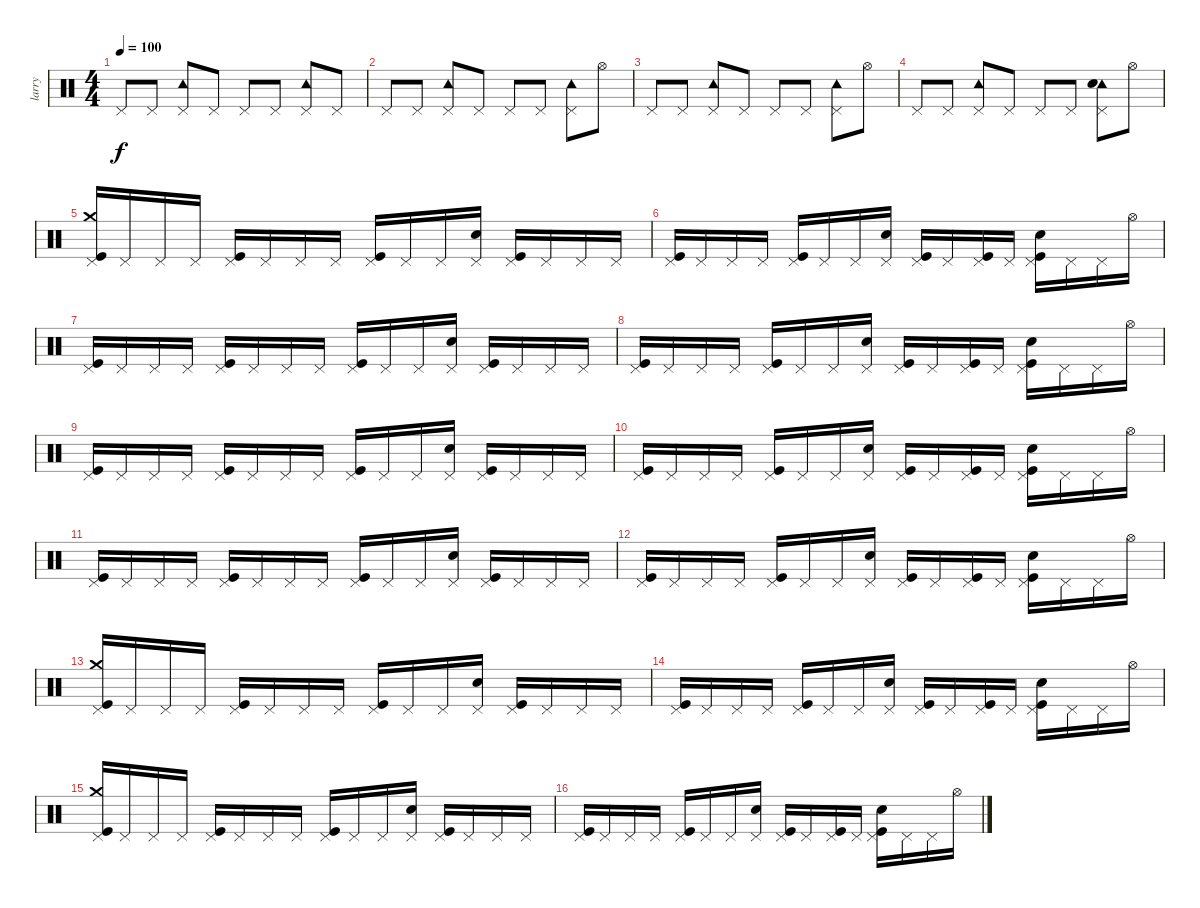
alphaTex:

\track ("larry" "larry") {instrument percussion}
\staff {score}
\articulation defaults
\ts (4 4)
\tempo 100
\clef neutral
\ks c "Pedal Hi-Hat (hit)".8{dy f} "Pedal Hi-Hat (hit)".8
("Pedal Hi-Hat (hit)" "Tambourine (hit)").8 "Pedal Hi-Hat (hit)".8 "Pedal Hi-Hat (hit)".8 "Pedal Hi-Hat (hit)".8 ("Pedal Hi-Hat (hit)" "Tambourine (hit)").8 "Pedal Hi-Hat (hit)".8 |
"Pedal Hi-Hat (hit)".8 "Pedal Hi-Hat (hit)".8 ("Pedal Hi-Hat (hit)" "Tambourine (hit)").8 "Pedal Hi-Hat (hit)".8 "Pedal Hi-Hat (hit)".8 "Pedal Hi-Hat (hit)".8 ("Pedal Hi-Hat (hit)" "Tambourine (hit)").8 "Hi-Hat (open)".8 |
"Pedal Hi-Hat (hit)".8 "Pedal Hi-Hat (hit)".8 ("Pedal Hi-Hat (hit)" "Tambourine (hit)").8 "Pedal Hi-Hat (hit)".8 "Pedal Hi-Hat (hit)".8 "Pedal Hi-Hat (hit)".8 ("Pedal Hi-Hat (hit)" "Tambourine (hit)").8 "Hi-Hat (open)".8 |
"Pedal Hi-Hat (hit)".8 "Pedal Hi-Hat (hit)".8 ("Pedal Hi-Hat (hit)" "Tambourine (hit)").8 "Pedal Hi-Hat (hit)".8 "Pedal Hi-Hat (hit)".8 "Pedal Hi-Hat (hit)".8 ("Pedal Hi-Hat (hit)" "Tambourine (hit)" "Metronome (bell)").8 "Hi-Hat (open)".8 |
("Pedal Hi-Hat (hit)" "Crash medium (hit)" "Kick (hit)").16 "Pedal Hi-Hat (hit)".16 "Pedal Hi-Hat (hit)".16 "Pedal Hi-Hat (hit)".16 ("Pedal Hi-Hat (hit)" "Kick (hit)").16 "Pedal Hi-Hat (hit)".16 "Pedal Hi-Hat (hit)".16 "Pedal Hi-Hat (hit)".16 ("Pedal Hi-Hat (hit)" "Kick (hit)").16 "Pedal Hi-Hat (hit)".16 "Pedal Hi-Hat (hit)".16 ("Pedal Hi-Hat (hit)" "Metronome (bell)").16 ("Pedal Hi-Hat (hit)" "Kick (hit)").16 "Pedal Hi-Hat (hit)".16 "Pedal Hi-Hat (hit)".16 "Pedal Hi-Hat (hit)".16 |
("Pedal Hi-Hat (hit)" "Kick (hit)").16 "Pedal Hi-Hat (hit)".16 "Pedal Hi-Hat (hit)".16 "Pedal Hi-Hat (hit)".16 ("Pedal Hi-Hat (hit)" "Kick (hit)").16 "Pedal Hi-Hat (hit)".16 "Pedal Hi-Hat (hit)".16 ("Pedal Hi-Hat (hit)" "Metronome (bell)").16 ("Pedal Hi-Hat (hit)" "Kick (hit)").16 "Pedal Hi-Hat (hit)".16 ("Pedal Hi-Hat (hit)" "Kick (hit)").16 "Pedal Hi-Hat (hit)".16 ("Pedal Hi-Hat (hit)" "Kick (hit)" "Metronome (bell)").16 "Pedal Hi-Hat (hit)".16 "Pedal Hi-Hat (hit)".16 "Hi-Hat (open)".16 |
("Pedal Hi-Hat (hit)" "Kick (hit)").16 "Pedal Hi-Hat (hit)".16 "Pedal Hi-Hat (hit)".16 "Pedal Hi-Hat (hit)".16 ("Pedal Hi-Hat (hit)" "Kick (hit)").16 "Pedal Hi-Hat (hit)".16 "Pedal Hi-Hat (hit)".16 "Pedal Hi-Hat (hit)".16 ("Pedal Hi-Hat (hit)" "Kick (hit)").16 "Pedal Hi-Hat (hit)".16 "Pedal Hi-Hat (hit)".16 ("Pedal Hi-Hat (hit)" "Metronome (bell)").16 ("Pedal Hi-Hat (hit)" "Kick (hit)").16 "Pedal Hi-Hat (hit)".16 "Pedal Hi-Hat (hit)".16 "Pedal Hi-Hat (hit)".16 |
("Pedal Hi-Hat (hit)" "Kick (hit)").16 "Pedal Hi-Hat (hit)".16 "Pedal Hi-Hat (hit)".16 "Pedal Hi-Hat (hit)".16 ("Pedal Hi-Hat (hit)" "Kick (hit)").16 "Pedal Hi-Hat (hit)".16 "Pedal Hi-Hat (hit)".16 ("Pedal Hi-Hat (hit)" "Metronome (bell)").16 ("Pedal Hi-Hat (hit)" "Kick (hit)").16 "Pedal Hi-Hat (hit)".16 ("Pedal Hi-Hat (hit)" "Kick (hit)").16 "Pedal Hi-Hat (hit)".16 ("Pedal Hi-Hat (hit)" "Kick (hit)" "Metronome (bell)").16 "Pedal Hi-Hat (hit)".16 "Pedal Hi-Hat (hit)".16 "Hi-Hat (open)".16 |
("Pedal Hi-Hat (hit)" "Kick (hit)").16 "Pedal Hi-Hat (hit)".16 "Pedal Hi-Hat (hit)".16 "Pedal Hi-Hat (hit)".16 ("Pedal Hi-Hat (hit)" "Kick (hit)").16 "Pedal Hi-Hat (hit)".16 "Pedal Hi-Hat (hit)".16 "Pedal Hi-Hat (hit)".16 ("Pedal Hi-Hat (hit)" "Kick (hit)").16 "Pedal Hi-Hat (hit)".16 "Pedal Hi-Hat (hit)".16 ("Pedal Hi-Hat (hit)" "Metronome (bell)").16 ("Pedal Hi-Hat (hit)" "Kick (hit)").16 "Pedal Hi-Hat (hit)".16 "Pedal Hi-Hat (hit)".16 "Pedal Hi-Hat (hit)".16 |
("Pedal Hi-Hat (hit)" "Kick (hit)").16 "Pedal Hi-Hat (hit)".16 "Pedal Hi-Hat (hit)".16 "Pedal Hi-Hat (hit)".16 ("Pedal Hi-Hat (hit)" "Kick (hit)").16 "Pedal Hi-Hat (hit)".16 "Pedal Hi-Hat (hit)".16 ("Pedal Hi-Hat (hit)" "Metronome (bell)").16 ("Pedal Hi-Hat (hit)" "Kick (hit)").16 "Pedal Hi-Hat (hit)".16 ("Pedal Hi-Hat (hit)" "Kick (hit)").16 "Pedal Hi-Hat (hit)".16 ("Pedal Hi-Hat (hit)" "Kick (hit)" "Metronome (bell)").16 "Pedal Hi-Hat (hit)".16 "Pedal Hi-Hat (hit)".16 "Hi-Hat (open)".16 |
("Pedal Hi-Hat (hit)" "Kick (hit)").16 "Pedal Hi-Hat (hit)".16 "Pedal Hi-Hat (hit)".16 "Pedal Hi-Hat (hit)".16 ("Pedal Hi-Hat (hit)" "Kick (hit)").16 "Pedal Hi-Hat (hit)".16 "Pedal Hi-Hat (hit)".16 "Pedal Hi-Hat (hit)".16 ("Pedal Hi-Hat (hit)" "Kick (hit)").16 "Pedal Hi-Hat (hit)".16 "Pedal Hi-Hat (hit)".16 ("Pedal Hi-Hat (hit)" "Metronome (bell)").16 ("Pedal Hi-Hat (hit)" "Kick (hit)").16 "Pedal Hi-Hat (hit)".16 "Pedal Hi-Hat (hit)".16 "Pedal Hi-Hat (hit)".16 |
("Pedal Hi-Hat (hit)" "Kick (hit)").16 "Pedal Hi-Hat (hit)".16 "Pedal Hi-Hat (hit)".16 "Pedal Hi-Hat (hit)".16 ("Pedal Hi-Hat (hit)" "Kick (hit)").16 "Pedal Hi-Hat (hit)".16 "Pedal Hi-Hat (hit)".16 ("Pedal Hi-Hat (hit)" "Metronome (bell)").16 ("Pedal Hi-Hat (hit)" "Kick (hit)").16 "Pedal Hi-Hat (hit)".16 ("Pedal Hi-Hat (hit)" "Kick (hit)").16 "Pedal Hi-Hat (hit)".16 ("Pedal Hi-Hat (hit)" "Kick (hit)" "Metronome (bell)").16 "Pedal Hi-Hat (hit)".16 "Pedal Hi-Hat (hit)".16 "Hi-Hat (open)".16 |
("Pedal Hi-Hat (hit)" "Crash medium (hit)" "Kick (hit)").16 "Pedal Hi-Hat (hit)".16 "Pedal Hi-Hat (hit)".16 "Pedal Hi-Hat (hit)".16 ("Pedal Hi-Hat (hit)" "Kick (hit)").16 "Pedal Hi-Hat (hit)".16 "Pedal Hi-Hat (hit)".16 "Pedal Hi-Hat (hit)".16 ("Pedal Hi-Hat (hit)" "Kick (hit)").16 "Pedal Hi-Hat (hit)".16 "Pedal Hi-Hat (hit)".16 ("Pedal Hi-Hat (hit)" "Metronome (bell)").16 ("Pedal Hi-Hat (hit)" "Kick (hit)").16 "Pedal Hi-Hat (hit)".16 "Pedal Hi-Hat (hit)".16 "Pedal Hi-Hat (hit)".16 |
("Pedal Hi-Hat (hit)" "Kick (hit)").16 "Pedal Hi-Hat (hit)".16 "Pedal Hi-Hat (hit)".16 "Pedal Hi-Hat (hit)".16 ("Pedal Hi-Hat (hit)" "Kick (hit)").16 "Pedal Hi-Hat (hit)".16 "Pedal Hi-Hat (hit)".16 ("Pedal Hi-Hat (hit)" "Metronome (bell)").16 ("Pedal Hi-Hat (hit)" "Kick (hit)").16 "Pedal Hi-Hat (hit)".16 ("Pedal Hi-Hat (hit)" "Kick (hit)").16 "Pedal Hi-Hat (hit)".16 ("Pedal Hi-Hat (hit)" "Kick (hit)" "Metronome (bell)").16 "Pedal Hi-Hat (hit)".16 "Pedal Hi-Hat (hit)".16 "Hi-Hat (open)".16 |
("Pedal Hi-Hat (hit)" "Crash medium (hit)" "Kick (hit)").16 "Pedal Hi-Hat (hit)".16 "Pedal Hi-Hat (hit)".16 "Pedal Hi-Hat (hit)".16 ("Pedal Hi-Hat (hit)" "Kick (hit)").16 "Pedal Hi-Hat (hit)".16 "Pedal Hi-Hat (hit)".16 "Pedal Hi-Hat (hit)".16 ("Pedal Hi-Hat (hit)" "Kick (hit)").16 "Pedal Hi-Hat (hit)".16 "Pedal Hi-Hat (hit)".16 ("Pedal Hi-Hat (hit)" "Metronome (bell)").16 ("Pedal Hi-Hat (hit)" "Kick (hit)").16 "Pedal Hi-Hat (hit)".16 "Pedal Hi-Hat (hit)".16 "Pedal Hi-Hat (hit)".16 |
("Pedal Hi-Hat (hit)" "Kick (hit)").16 "Pedal Hi-Hat (hit)".16 "Pedal Hi-Hat (hit)".16 "Pedal Hi-Hat (hit)".16 ("Pedal Hi-Hat (hit)" "Kick (hit)").16 "Pedal Hi-Hat (hit)".16 "Pedal Hi-Hat (hit)".16 ("Pedal Hi-Hat (hit)" "Metronome (bell)").16 ("Pedal Hi-Hat (hit)" "Kick (hit)").16 "Pedal Hi-Hat (hit)".16 ("Pedal Hi-Hat (hit)" "Kick (hit)").16 "Pedal Hi-Hat (hit)".16 ("Pedal Hi-Hat (hit)" "Kick (hit)" "Metronome (bell)").16 "Pedal Hi-Hat (hit)".16 "Pedal Hi-Hat (hit)".16 "Hi-Hat (open)".16
